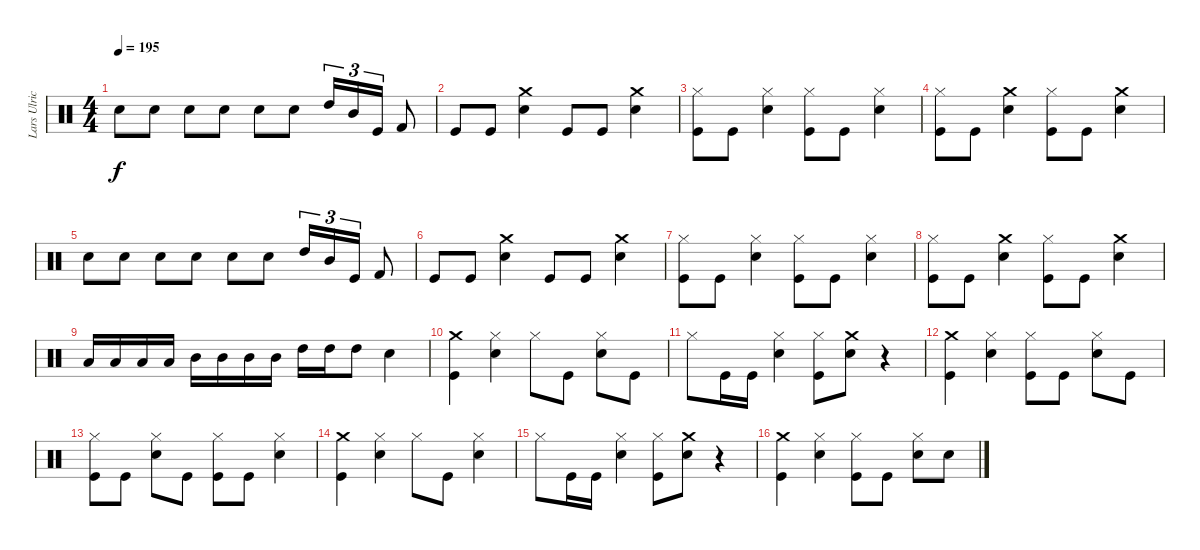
\track ("Lars Ulrich (Drums)" "Lars Ulric") {instrument percussion}
\staff {score}
\articulation defaults
\ts (4 4)
\tempo 195
\clef neutral
\ks c "Snare (hit) 2".8{dy f} "Snare (hit) 2".8 "Snare (hit) 2".8 "Snare (hit) 2".8 "Snare (hit) 2".8 "Snare (hit) 2".8 "High Tom (hit)".16{tu (3 2)} "Mid Tom (hit)".16{tu (3 2)} "Kick (hit)".16{tu (3 2)} "Kick (hit) 2".8
|
"Kick (hit)".8 "Kick (hit)".8 ("Crash medium (hit)" "Snare (hit) 2").4 "Kick (hit)".8 "Kick (hit)".8 ("Crash medium (hit)" "Snare (hit) 2").4 |
("Kick (hit)" "Hi-Hat (closed)").8 "Kick (hit)".8 ("Snare (hit) 2" "Hi-Hat (closed)").4 ("Kick (hit)" "Hi-Hat (closed)").8 "Kick (hit)".8 ("Snare (hit) 2" "Hi-Hat (closed)").4 |
("Kick (hit)" "Hi-Hat (closed)").8 "Kick (hit)".8 ("Snare (hit) 2" "Crash medium (hit)").4 ("Kick (hit)" "Hi-Hat (closed)").8 "Kick (hit)".8 ("Crash medium (hit)" "Snare (hit) 2").4 |
"Snare (hit) 2".8 "Snare (hit) 2".8 "Snare (hit) 2".8 "Snare (hit) 2".8 "Snare (hit) 2".8 "Snare (hit) 2".8 "High Tom (hit)".16{tu (3 2)} "Mid Tom (hit)".16{tu (3 2)} "Kick (hit)".16{tu (3 2)} "Kick (hit) 2".8 |
"Kick (hit)".8 "Kick (hit)".8 ("Crash medium (hit)" "Snare (hit) 2").4 "Kick (hit)".8 "Kick (hit)".8 ("Crash medium (hit)" "Snare (hit) 2").4 |
("Kick (hit)" "Hi-Hat (closed)").8 "Kick (hit)".8 ("Snare (hit) 2" "Hi-Hat (closed)").4 ("Kick (hit)" "Hi-Hat (closed)").8 "Kick (hit)".8 ("Snare (hit) 2" "Hi-Hat (closed)").4 |
("Kick (hit)" "Hi-Hat (closed)").8 "Kick (hit)".8 ("Snare (hit) 2" "Crash medium (hit)").4 ("Kick (hit)" "Hi-Hat (closed)").8 "Kick (hit)".8 ("Crash medium (hit)" "Snare (hit) 2").4 |
"Low Tom (hit)".16 "Low Tom (hit)".16 "Low Tom (hit)".16 "Low Tom (hit)".16 "Mid Tom (hit)".16 "Mid Tom (hit)".16 "Mid Tom (hit)".16 "Mid Tom (hit)".16 "High Tom (hit)".16 "High Tom (hit)".16 "High Tom (hit)".8 "Snare (hit) 2".4 |
("Kick (hit)" "Crash medium (hit)").4 ("Hi-Hat (closed)" "Snare (hit) 2").4 "Hi-Hat (closed)".8 "Kick (hit)".8 ("Snare (hit) 2" "Hi-Hat (closed)").8 "Kick (hit)".8 |
"Hi-Hat (closed)".8 "Kick (hit)".16 "Kick (hit)".16 ("Snare (hit) 2" "Hi-Hat (closed)").4 ("Hi-Hat (closed)" "Kick (hit)").8 ("Crash medium (hit)" "Snare (hit) 2").8 r.4 |
("Kick (hit)" "Crash medium (hit)").4 ("Hi-Hat (closed)" "Snare (hit) 2").4 ("Hi-Hat (closed)" "Kick (hit)").8 "Kick (hit)".8 ("Snare (hit) 2" "Hi-Hat (closed)").8 "Kick (hit)".8 |
("Hi-Hat (closed)" "Kick (hit)").8 "Kick (hit)".8 ("Snare (hit) 2" "Hi-Hat (closed)").8 "Kick (hit)".8 ("Hi-Hat (closed)" "Kick (hit)").8 "Kick (hit)".8 ("Snare (hit) 2" "Hi-Hat (closed)").4 |
("Kick (hit)" "Crash medium (hit)").4 ("Hi-Hat (closed)" "Snare (hit) 2").4 "Hi-Hat (closed)".8 "Kick (hit)".8 ("Snare (hit) 2" "Hi-Hat (closed)").4 |
"Hi-Hat (closed)".8 "Kick (hit)".16 "Kick (hit)".16 ("Snare (hit) 2" "Hi-Hat (closed)").4 ("Hi-Hat (closed)" "Kick (hit)").8 ("Crash medium (hit)" "Snare (hit) 2").8 r.4 |
("Crash medium (hit)" "Kick (hit)").4 ("Snare (hit) 2" "Hi-Hat (closed)").4 ("Hi-Hat (closed)" "Kick (hit)").8 "Kick (hit)".8 ("Hi-Hat (closed)" "Snare (hit) 2").8 "Snare (hit) 2".8
